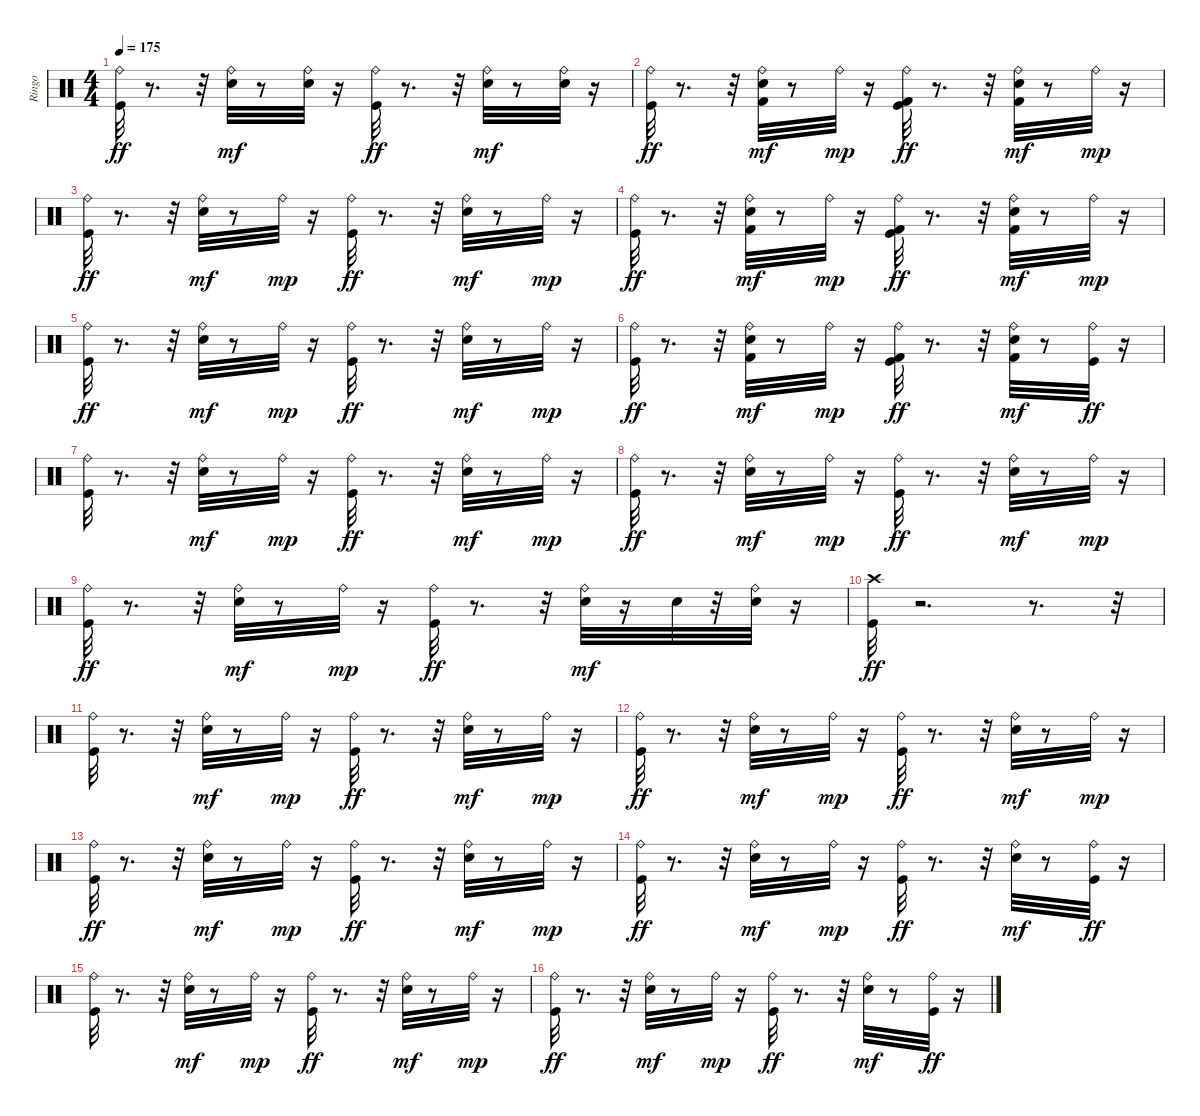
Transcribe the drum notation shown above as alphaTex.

\track ("Ringo" "Ringo") {instrument percussion}
\staff {score}
\articulation defaults
\ts (4 4)
\tempo 175
\clef neutral
\ks c
("Ride (bell)" "Kick (hit)").32{dy ff} r.8{d} r.32 ("Ride (bell)" "Snare (hit) 2").32{dy mf} r.8 ("Ride (bell)" "Snare (hit) 2").32 r.16 ("Ride (bell)" "Kick (hit)").32{dy ff} r.8{d} r.32 ("Ride (bell)" "Snare (hit) 2").32{dy mf} r.8 ("Ride (bell)" "Snare (hit) 2").32 r.16 |
("Ride (bell)" "Kick (hit)").32{dy ff} r.8{d} r.32 ("Ride (bell)" "Snare (hit) 2" "Kick (hit) 2").32{dy mf} r.8 "Ride (bell)".32{dy mp} r.16 ("Ride (bell)" "Kick (hit)" "Kick (hit) 2").32{dy ff} r.8{d} r.32 ("Ride (bell)" "Snare (hit) 2" "Kick (hit) 2").32{dy mf} r.8 "Ride (bell)".32{dy mp} r.16 |
("Ride (bell)" "Kick (hit)").32{dy ff} r.8{d} r.32 ("Ride (bell)" "Snare (hit) 2").32{dy mf} r.8 "Ride (bell)".32{dy mp} r.16 ("Ride (bell)" "Kick (hit)").32{dy ff} r.8{d} r.32 ("Ride (bell)" "Snare (hit) 2").32{dy mf} r.8 "Ride (bell)".32{dy mp} r.16 |
("Ride (bell)" "Kick (hit)").32{dy ff} r.8{d} r.32 ("Ride (bell)" "Snare (hit) 2" "Kick (hit) 2").32{dy mf} r.8 "Ride (bell)".32{dy mp} r.16 ("Ride (bell)" "Kick (hit)" "Kick (hit) 2").32{dy ff} r.8{d} r.32 ("Ride (bell)" "Snare (hit) 2" "Kick (hit) 2").32{dy mf} r.8 "Ride (bell)".32{dy mp} r.16 |
("Ride (bell)" "Kick (hit)").32{dy ff} r.8{d} r.32 ("Ride (bell)" "Snare (hit) 2").32{dy mf} r.8 "Ride (bell)".32{dy mp} r.16 ("Ride (bell)" "Kick (hit)").32{dy ff} r.8{d} r.32 ("Ride (bell)" "Snare (hit) 2").32{dy mf} r.8 "Ride (bell)".32{dy mp} r.16 |
("Ride (bell)" "Kick (hit)").32{dy ff} r.8{d} r.32 ("Ride (bell)" "Snare (hit) 2" "Kick (hit) 2").32{dy mf} r.8 "Ride (bell)".32{dy mp} r.16 ("Ride (bell)" "Kick (hit)" "Kick (hit) 2").32{dy ff} r.8{d} r.32 ("Ride (bell)" "Snare (hit) 2" "Kick (hit) 2").32{dy mf} r.8 ("Ride (bell)" "Kick (hit)").32{dy ff} r.16 |
("Ride (bell)" "Kick (hit)").32 r.8{d} r.32 ("Ride (bell)" "Snare (hit) 2").32{dy mf} r.8 "Ride (bell)".32{dy mp} r.16 ("Ride (bell)" "Kick (hit)").32{dy ff} r.8{d} r.32 ("Ride (bell)" "Snare (hit) 2").32{dy mf} r.8 "Ride (bell)".32{dy mp} r.16 |
("Ride (bell)" "Kick (hit)").32{dy ff} r.8{d} r.32 ("Ride (bell)" "Snare (hit) 2").32{dy mf} r.8 "Ride (bell)".32{dy mp} r.16 ("Ride (bell)" "Kick (hit)").32{dy ff} r.8{d} r.32 ("Ride (bell)" "Snare (hit) 2").32{dy mf} r.8 "Ride (bell)".32{dy mp} r.16 |
("Ride (bell)" "Kick (hit)").32{dy ff} r.8{d} r.32 ("Ride (bell)" "Snare (hit) 2").32{dy mf} r.8 "Ride (bell)".32{dy mp} r.16 ("Ride (bell)" "Kick (hit)").32{dy ff} r.8{d} r.32 ("Ride (bell)" "Snare (hit) 2").32{dy mf} r.16 "Snare (hit) 2".32 r.32 ("Ride (bell)" "Snare (hit) 2").32 r.16 |
("Kick (hit)" "Crash high (hit)").32{dy ff} r.2{d} r.8{d} r.32 |
("Ride (bell)" "Kick (hit)").32 r.8{d} r.32 ("Ride (bell)" "Snare (hit) 2").32{dy mf} r.8 "Ride (bell)".32{dy mp} r.16 ("Ride (bell)" "Kick (hit)").32{dy ff} r.8{d} r.32 ("Ride (bell)" "Snare (hit) 2").32{dy mf} r.8 "Ride (bell)".32{dy mp} r.16 |
("Ride (bell)" "Kick (hit)").32{dy ff} r.8{d} r.32 ("Ride (bell)" "Snare (hit) 2").32{dy mf} r.8 "Ride (bell)".32{dy mp} r.16 ("Ride (bell)" "Kick (hit)").32{dy ff} r.8{d} r.32 ("Ride (bell)" "Snare (hit) 2").32{dy mf} r.8 "Ride (bell)".32{dy mp} r.16 |
("Ride (bell)" "Kick (hit)").32{dy ff} r.8{d} r.32 ("Ride (bell)" "Snare (hit) 2").32{dy mf} r.8 "Ride (bell)".32{dy mp} r.16 ("Ride (bell)" "Kick (hit)").32{dy ff} r.8{d} r.32 ("Ride (bell)" "Snare (hit) 2").32{dy mf} r.8 "Ride (bell)".32{dy mp} r.16 |
("Ride (bell)" "Kick (hit)").32{dy ff} r.8{d} r.32 ("Ride (bell)" "Snare (hit) 2").32{dy mf} r.8 "Ride (bell)".32{dy mp} r.16 ("Ride (bell)" "Kick (hit)").32{dy ff} r.8{d} r.32 ("Ride (bell)" "Snare (hit) 2").32{dy mf} r.8 ("Ride (bell)" "Kick (hit)").32{dy ff} r.16 |
("Ride (bell)" "Kick (hit)").32 r.8{d} r.32 ("Ride (bell)" "Snare (hit) 2").32{dy mf} r.8 "Ride (bell)".32{dy mp} r.16 ("Ride (bell)" "Kick (hit)").32{dy ff} r.8{d} r.32 ("Ride (bell)" "Snare (hit) 2").32{dy mf} r.8 "Ride (bell)".32{dy mp} r.16 |
("Ride (bell)" "Kick (hit)").32{dy ff} r.8{d} r.32 ("Ride (bell)" "Snare (hit) 2").32{dy mf} r.8 "Ride (bell)".32{dy mp} r.16 ("Ride (bell)" "Kick (hit)").32{dy ff} r.8{d} r.32 ("Ride (bell)" "Snare (hit) 2").32{dy mf} r.8 ("Ride (bell)" "Kick (hit)").32{dy ff} r.16
